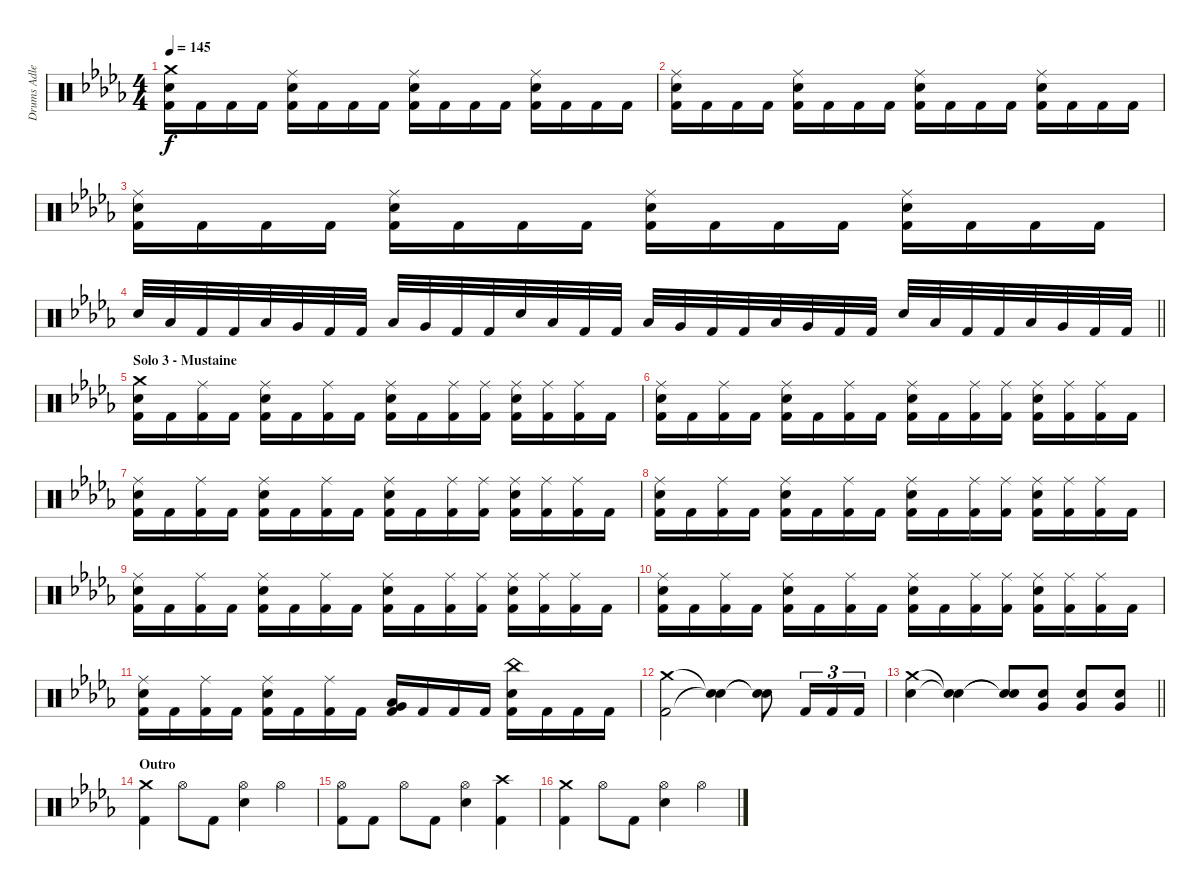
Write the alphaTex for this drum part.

\track ("Drums Adler" "Drums Adle") {instrument percussion}
\staff {score}
\articulation defaults
\ts (4 4)
\tempo 145
\clef neutral
\ks db
("Crash medium (hit)" "Snare (hit) 2" "Kick (hit) 2").16{dy f} "Kick (hit) 2".16 "Kick (hit) 2".16 "Kick (hit) 2".16 ("Ride (middle)" "Snare (hit) 2" "Kick (hit) 2").16 "Kick (hit) 2".16 "Kick (hit) 2".16 "Kick (hit) 2".16 ("Ride (middle)" "Snare (hit) 2" "Kick (hit) 2").16 "Kick (hit) 2".16 "Kick (hit) 2".16 "Kick (hit) 2".16 ("Ride (middle)" "Snare (hit) 2" "Kick (hit) 2").16 "Kick (hit) 2".16 "Kick (hit) 2".16 "Kick (hit) 2".16 |
("Ride (middle)" "Snare (hit) 2" "Kick (hit) 2").16 "Kick (hit) 2".16 "Kick (hit) 2".16 "Kick (hit) 2".16 ("Ride (middle)" "Snare (hit) 2" "Kick (hit) 2").16 "Kick (hit) 2".16 "Kick (hit) 2".16 "Kick (hit) 2".16 ("Ride (middle)" "Snare (hit) 2" "Kick (hit) 2").16 "Kick (hit) 2".16 "Kick (hit) 2".16 "Kick (hit) 2".16 ("Ride (middle)" "Snare (hit) 2" "Kick (hit) 2").16 "Kick (hit) 2".16 "Kick (hit) 2".16 "Kick (hit) 2".16 |
("Ride (middle)" "Snare (hit) 2" "Kick (hit) 2").16 "Kick (hit) 2".16 "Kick (hit) 2".16 "Kick (hit) 2".16 ("Ride (middle)" "Snare (hit) 2" "Kick (hit) 2").16 "Kick (hit) 2".16 "Kick (hit) 2".16 "Kick (hit) 2".16 ("Ride (middle)" "Snare (hit) 2" "Kick (hit) 2").16 "Kick (hit) 2".16 "Kick (hit) 2".16 "Kick (hit) 2".16 ("Ride (middle)" "Snare (hit) 2" "Kick (hit) 2").16 "Kick (hit) 2".16 "Kick (hit) 2".16 "Kick (hit) 2".16 |
\barLineRight lightlight "Snare (hit) 2".32 "Low Tom (hit)".32 "Kick (hit) 2".32 "Kick (hit) 2".32 "Low Tom (hit)".32 "Very Low Tom (hit)".32 "Kick (hit) 2".32 "Kick (hit) 2".32 "Low Tom (hit)".32 "Very Low Tom (hit)".32 "Kick (hit) 2".32 "Kick (hit) 2".32 "Snare (hit) 2".32 "Low Tom (hit)".32 "Kick (hit) 2".32 "Kick (hit) 2".32 "Low Tom (hit)".32 "Very Low Tom (hit)".32 "Kick (hit) 2".32 "Kick (hit) 2".32 "Low Tom (hit)".32 "Very Low Tom (hit)".32 "Kick (hit) 2".32 "Kick (hit) 2".32 "Snare (hit) 2".32 "Low Tom (hit)".32 "Kick (hit) 2".32 "Kick (hit) 2".32 "Low Tom (hit)".32 "Very Low Tom (hit)".32 "Kick (hit) 2".32 "Kick (hit) 2".32
|
\section ("" "Solo 3 - Mustaine")
("Crash medium (hit)" "Snare (hit) 2" "Kick (hit) 2").16 "Kick (hit) 2".16 ("Ride (middle)" "Kick (hit) 2").16 "Kick (hit) 2".16 ("Ride (middle)" "Snare (hit) 2" "Kick (hit) 2").16 "Kick (hit) 2".16 ("Ride (middle)" "Kick (hit) 2").16 "Kick (hit) 2".16 ("Ride (middle)" "Snare (hit) 2" "Kick (hit) 2").16 "Kick (hit) 2".16 ("Ride (middle)" "Kick (hit) 2").16 ("Ride (middle)" "Kick (hit) 2").16 ("Ride (middle)" "Snare (hit) 2" "Kick (hit) 2").16 ("Ride (middle)" "Kick (hit) 2").16 ("Ride (middle)" "Kick (hit) 2").16 "Kick (hit) 2".16 |
("Ride (middle)" "Snare (hit) 2" "Kick (hit) 2").16 "Kick (hit) 2".16 ("Ride (middle)" "Kick (hit) 2").16 "Kick (hit) 2".16 ("Ride (middle)" "Snare (hit) 2" "Kick (hit) 2").16 "Kick (hit) 2".16 ("Ride (middle)" "Kick (hit) 2").16 "Kick (hit) 2".16 ("Ride (middle)" "Snare (hit) 2" "Kick (hit) 2").16 "Kick (hit) 2".16 ("Ride (middle)" "Kick (hit) 2").16 ("Ride (middle)" "Kick (hit) 2").16 ("Ride (middle)" "Snare (hit) 2" "Kick (hit) 2").16 ("Ride (middle)" "Kick (hit) 2").16 ("Ride (middle)" "Kick (hit) 2").16 "Kick (hit) 2".16 |
("Ride (middle)" "Snare (hit) 2" "Kick (hit) 2").16 "Kick (hit) 2".16 ("Ride (middle)" "Kick (hit) 2").16 "Kick (hit) 2".16 ("Ride (middle)" "Snare (hit) 2" "Kick (hit) 2").16 "Kick (hit) 2".16 ("Ride (middle)" "Kick (hit) 2").16 "Kick (hit) 2".16 ("Ride (middle)" "Snare (hit) 2" "Kick (hit) 2").16 "Kick (hit) 2".16 ("Ride (middle)" "Kick (hit) 2").16 ("Ride (middle)" "Kick (hit) 2").16 ("Ride (middle)" "Snare (hit) 2" "Kick (hit) 2").16 ("Ride (middle)" "Kick (hit) 2").16 ("Ride (middle)" "Kick (hit) 2").16 "Kick (hit) 2".16 |
("Ride (middle)" "Snare (hit) 2" "Kick (hit) 2").16 "Kick (hit) 2".16 ("Ride (middle)" "Kick (hit) 2").16 "Kick (hit) 2".16 ("Ride (middle)" "Snare (hit) 2" "Kick (hit) 2").16 "Kick (hit) 2".16 ("Ride (middle)" "Kick (hit) 2").16 "Kick (hit) 2".16 ("Ride (middle)" "Snare (hit) 2" "Kick (hit) 2").16 "Kick (hit) 2".16 ("Ride (middle)" "Kick (hit) 2").16 ("Ride (middle)" "Kick (hit) 2").16 ("Ride (middle)" "Snare (hit) 2" "Kick (hit) 2").16 ("Ride (middle)" "Kick (hit) 2").16 ("Ride (middle)" "Kick (hit) 2").16 "Kick (hit) 2".16 |
("Ride (middle)" "Snare (hit) 2" "Kick (hit) 2").16 "Kick (hit) 2".16 ("Ride (middle)" "Kick (hit) 2").16 "Kick (hit) 2".16 ("Ride (middle)" "Snare (hit) 2" "Kick (hit) 2").16 "Kick (hit) 2".16 ("Ride (middle)" "Kick (hit) 2").16 "Kick (hit) 2".16 ("Ride (middle)" "Snare (hit) 2" "Kick (hit) 2").16 "Kick (hit) 2".16 ("Ride (middle)" "Kick (hit) 2").16 ("Ride (middle)" "Kick (hit) 2").16 ("Ride (middle)" "Snare (hit) 2" "Kick (hit) 2").16 ("Ride (middle)" "Kick (hit) 2").16 ("Ride (middle)" "Kick (hit) 2").16 "Kick (hit) 2".16 |
("Ride (middle)" "Snare (hit) 2" "Kick (hit) 2").16 "Kick (hit) 2".16 ("Ride (middle)" "Kick (hit) 2").16 "Kick (hit) 2".16 ("Ride (middle)" "Snare (hit) 2" "Kick (hit) 2").16 "Kick (hit) 2".16 ("Ride (middle)" "Kick (hit) 2").16 "Kick (hit) 2".16 ("Ride (middle)" "Snare (hit) 2" "Kick (hit) 2").16 "Kick (hit) 2".16 ("Ride (middle)" "Kick (hit) 2").16 ("Ride (middle)" "Kick (hit) 2").16 ("Ride (middle)" "Snare (hit) 2" "Kick (hit) 2").16 ("Ride (middle)" "Kick (hit) 2").16 ("Ride (middle)" "Kick (hit) 2").16 "Kick (hit) 2".16 |
("Ride (middle)" "Snare (hit) 2" "Kick (hit) 2").16 "Kick (hit) 2".16 ("Ride (middle)" "Kick (hit) 2").16 "Kick (hit) 2".16 ("Ride (middle)" "Snare (hit) 2" "Kick (hit) 2").16 "Kick (hit) 2".16 ("Ride (middle)" "Kick (hit) 2").16 "Kick (hit) 2".16 ("Low Tom (hit)" "Very Low Tom (hit)" "Kick (hit) 2").16 "Kick (hit) 2".16 "Kick (hit) 2".16 "Kick (hit) 2".16 ("China (hit)" "Snare (hit) 2" "Kick (hit) 2").16 "Kick (hit) 2".16 "Kick (hit) 2".16 "Kick (hit) 2".16 |
("Crash medium (hit)" "Kick (hit) 2").2 ("Snare (hit)"{t} "Snare (hit)"{t}).4 ("Snare (hit)"{t} "Snare (hit)"{t}).8 "Kick (hit) 2".16{tu (3 2)} "Kick (hit) 2".16{tu (3 2)} "Kick (hit) 2".16{tu (3 2)} |
\barLineRight lightlight
("Crash medium (hit)" "Snare (hit) 2").4 ("Snare (hit)"{t} "Snare (hit)"{t}).4 ("Snare (hit)"{t} "Snare (hit)"{t}).8 ("Very Low Tom (hit)" "Snare (hit) 2").8 ("Very Low Tom (hit)" "Snare (hit) 2").8 ("Very Low Tom (hit)" "Snare (hit) 2").8 |
\section ("" "Outro")
("Crash medium (hit)" "Kick (hit) 2").4 "Hi-Hat (open)".8 "Kick (hit) 2".8 ("Hi-Hat (open)" "Snare (hit) 2").4 "Hi-Hat (open)".4 |
("Hi-Hat (open)" "Kick (hit) 2").8 "Kick (hit) 2".8 "Hi-Hat (open)".8 "Kick (hit) 2".8 ("Hi-Hat (open)" "Snare (hit) 2").4 ("Crash high (hit)" "Kick (hit) 2").4 |
("Crash medium (hit)" "Kick (hit) 2").4 "Hi-Hat (open)".8 "Kick (hit) 2".8 ("Hi-Hat (open)" "Snare (hit) 2").4 "Hi-Hat (open)".4
